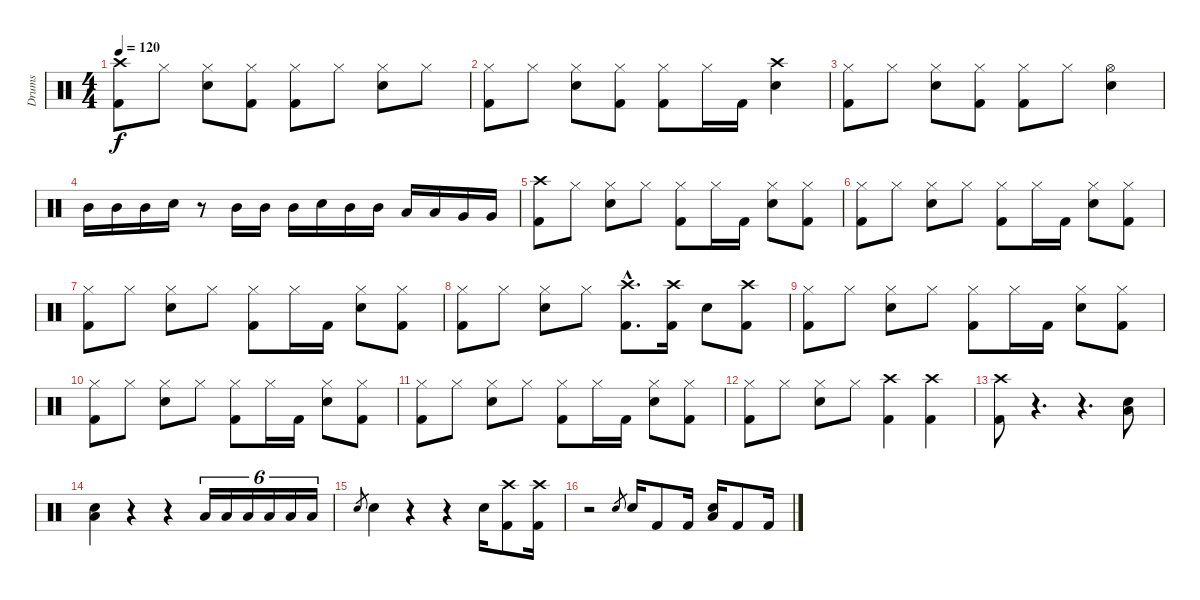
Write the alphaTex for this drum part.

\track ("Drums" "Drums") {instrument percussion}
\staff {score}
\articulation defaults
\ts (4 4)
\tempo 120
\clef neutral
\ks c
("Crash high (hit)" "Kick (hit) 2").8{dy f} "Hi-Hat (closed)".8 ("Hi-Hat (closed)" "Electric Snare (hit)").8 ("Hi-Hat (closed)" "Kick (hit) 2").8 ("Hi-Hat (closed)" "Kick (hit) 2").8 "Hi-Hat (closed)".8 ("Hi-Hat (closed)" "Electric Snare (hit)").8 "Hi-Hat (closed)".8 |
("Hi-Hat (closed)" "Kick (hit) 2").8 "Hi-Hat (closed)".8 ("Hi-Hat (closed)" "Electric Snare (hit)").8 ("Hi-Hat (closed)" "Kick (hit) 2").8 ("Hi-Hat (closed)" "Kick (hit) 2").8 "Hi-Hat (closed)".16 "Kick (hit) 2".16 ("Crash high (hit)" "Electric Snare (hit)").4 |
("Hi-Hat (closed)" "Kick (hit) 2").8 "Hi-Hat (closed)".8 ("Hi-Hat (closed)" "Electric Snare (hit)").8 ("Hi-Hat (closed)" "Kick (hit) 2").8 ("Hi-Hat (closed)" "Kick (hit) 2").8 "Hi-Hat (closed)".8 ("Hi-Hat (open)" "Electric Snare (hit)").4 |
"Mid Tom (hit)".16 "Mid Tom (hit)".16 "Mid Tom (hit)".16 "Electric Snare (hit)".16 r.8 "Mid Tom (hit)".16 "Mid Tom (hit)".16 "Mid Tom (hit)".16 "Electric Snare (hit)".16 "Mid Tom (hit)".16 "Mid Tom (hit)".16 "Low Tom (hit)".16 "Low Tom (hit)".16 "Very Low Tom (hit)".16 "Very Low Tom (hit)".16 |
("Crash high (hit)" "Kick (hit) 2").8 "Hi-Hat (closed)".8 ("Hi-Hat (closed)" "Electric Snare (hit)").8 "Hi-Hat (closed)".8 ("Hi-Hat (closed)" "Kick (hit) 2").8 "Hi-Hat (closed)".16 "Kick (hit) 2".16 ("Hi-Hat (closed)" "Electric Snare (hit)").8 ("Hi-Hat (closed)" "Kick (hit) 2").8 |
("Hi-Hat (closed)" "Kick (hit) 2").8 "Hi-Hat (closed)".8 ("Hi-Hat (closed)" "Electric Snare (hit)").8 "Hi-Hat (closed)".8 ("Hi-Hat (closed)" "Kick (hit) 2").8 "Hi-Hat (closed)".16 "Kick (hit) 2".16 ("Hi-Hat (closed)" "Electric Snare (hit)").8 ("Hi-Hat (closed)" "Kick (hit) 2").8 |
("Hi-Hat (closed)" "Kick (hit) 2").8 "Hi-Hat (closed)".8 ("Hi-Hat (closed)" "Electric Snare (hit)").8 "Hi-Hat (closed)".8 ("Hi-Hat (closed)" "Kick (hit) 2").8 "Hi-Hat (closed)".16 "Kick (hit) 2".16 ("Hi-Hat (closed)" "Electric Snare (hit)").8 ("Hi-Hat (closed)" "Kick (hit) 2").8 |
("Hi-Hat (closed)" "Kick (hit) 2").8 "Hi-Hat (closed)".8 ("Hi-Hat (closed)" "Electric Snare (hit)").8 "Hi-Hat (closed)".8 ("Crash high (hit)"{hac} "Kick (hit) 2"{hac}).8{d} ("Crash high (hit)" "Kick (hit) 2").16 "Electric Snare (hit)".8 ("Crash high (hit)" "Kick (hit) 2").8 |
("Hi-Hat (closed)" "Kick (hit) 2").8 "Hi-Hat (closed)".8 ("Hi-Hat (closed)" "Electric Snare (hit)").8 "Hi-Hat (closed)".8 ("Hi-Hat (closed)" "Kick (hit) 2").8 "Hi-Hat (closed)".16 "Kick (hit) 2".16 ("Hi-Hat (closed)" "Electric Snare (hit)").8 ("Hi-Hat (closed)" "Kick (hit) 2").8 |
("Hi-Hat (closed)" "Kick (hit) 2").8 "Hi-Hat (closed)".8 ("Hi-Hat (closed)" "Electric Snare (hit)").8 "Hi-Hat (closed)".8 ("Hi-Hat (closed)" "Kick (hit) 2").8 "Hi-Hat (closed)".16 "Kick (hit) 2".16 ("Hi-Hat (closed)" "Electric Snare (hit)").8 ("Hi-Hat (closed)" "Kick (hit) 2").8 |
("Hi-Hat (closed)" "Kick (hit) 2").8 "Hi-Hat (closed)".8 ("Hi-Hat (closed)" "Electric Snare (hit)").8 "Hi-Hat (closed)".8 ("Hi-Hat (closed)" "Kick (hit) 2").8 "Hi-Hat (closed)".16 "Kick (hit) 2".16 ("Hi-Hat (closed)" "Electric Snare (hit)").8 ("Hi-Hat (closed)" "Kick (hit) 2").8 |
("Hi-Hat (closed)" "Kick (hit) 2").8 "Hi-Hat (closed)".8 ("Hi-Hat (closed)" "Electric Snare (hit)").8 "Hi-Hat (closed)".8 ("Crash high (hit)" "Kick (hit) 2").4 ("Crash high (hit)" "Kick (hit) 2").4 |
("Crash high (hit)" "Kick (hit) 2").8 r.4{d} r.4{d} ("Electric Snare (hit)" "Low Tom (hit)").8 |
("Electric Snare (hit)" "Low Tom (hit)").4 r.4 r.4 "Low Tom (hit)".16{tu (6 4)} "Low Tom (hit)".16{tu (6 4)} "Low Tom (hit)".16{tu (6 4)} "Low Tom (hit)".16{tu (6 4)} "Low Tom (hit)".16{tu (6 4)} "Low Tom (hit)".16{tu (6 4)} |
"Electric Snare (hit)".8{gr} "Electric Snare (hit)".4 r.4 r.4 "Electric Snare (hit)".16 ("Crash high (hit)" "Kick (hit) 2").8 ("Crash high (hit)" "Kick (hit) 2").16 |
r.2 "Electric Snare (hit)".8{gr} "Electric Snare (hit)".16 "Kick (hit) 2".8 "Kick (hit) 2".16 ("Electric Snare (hit)" "Low Tom (hit)").16 "Kick (hit) 2".8 "Kick (hit) 2".16
